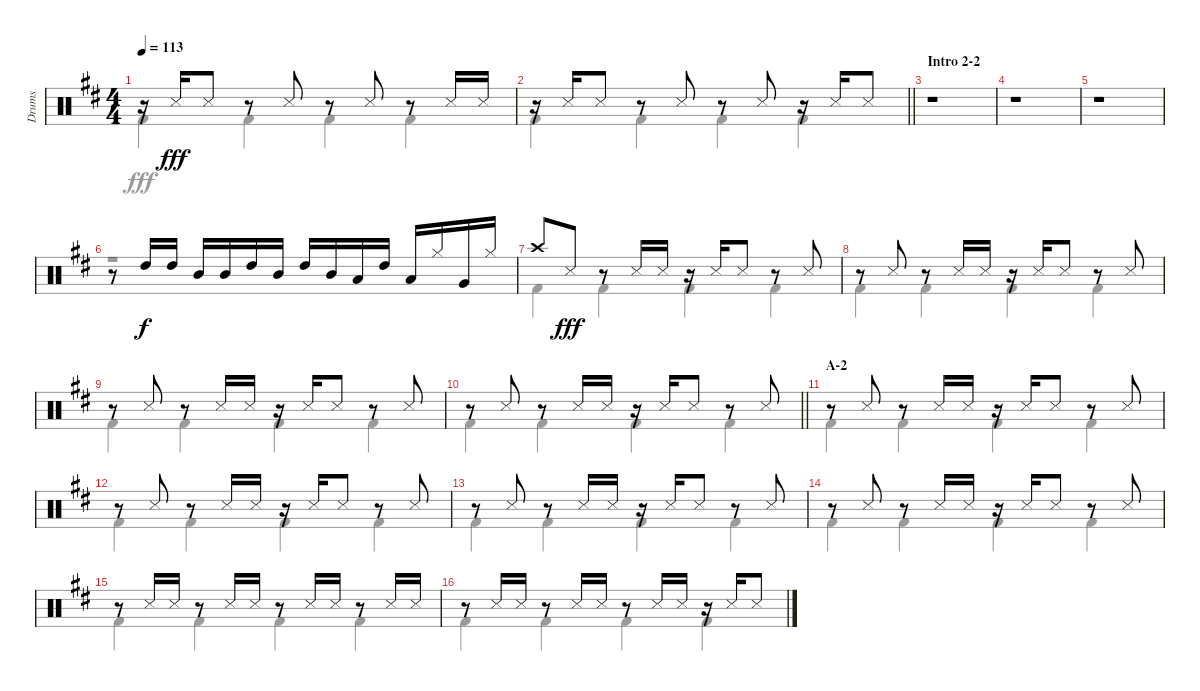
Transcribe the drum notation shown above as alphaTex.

\track ("Drums" "Drums") {instrument percussion}
\staff {score}
\articulation defaults
\voice
\ts (4 4)
\tempo 113
\clef neutral
\ks d
r.16{dy fff} "Snare (side stick) 3".16 "Snare (side stick) 3".8 r.8 "Snare (side stick) 3".8 r.8 "Snare (side stick) 3".8 r.8 "Snare (side stick) 3".16 "Snare (side stick) 3".16 |
\barLineRight lightlight
r.16 "Snare (side stick) 3".16 "Snare (side stick) 3".8 r.8 "Snare (side stick) 3".8 r.8 "Snare (side stick) 3".8 r.16 "Snare (side stick) 3".16 "Snare (side stick) 3".8 |
\section ("" "Intro 2-2")
r.1 |
r.1 |
r.1 |
r.8 "High Tom (hit)".16{dy f} "High Tom (hit)".16 "Mid Tom (hit)".16 "Mid Tom (hit)".16 "High Tom (hit)".16 "Mid Tom (hit)".16 "High Tom (hit)".16 "Mid Tom (hit)".16 "Low Tom (hit)".16 "High Tom (hit)".16 "Low Tom (hit)".16 "Hi-Hat (closed)".16 "Very Low Tom (hit)".16 "Hi-Hat (closed)".16 |
"Crash high (hit)".8 "Snare (side stick) 3".8{dy fff} r.8 "Snare (side stick) 3".16 "Snare (side stick) 3".16 r.16 "Snare (side stick) 3".16 "Snare (side stick) 3".8 r.8 "Snare (side stick) 3".8 |
r.8 "Snare (side stick) 3".8 r.8 "Snare (side stick) 3".16 "Snare (side stick) 3".16 r.16 "Snare (side stick) 3".16 "Snare (side stick) 3".8 r.8 "Snare (side stick) 3".8 |
r.8 "Snare (side stick) 3".8 r.8 "Snare (side stick) 3".16 "Snare (side stick) 3".16 r.16 "Snare (side stick) 3".16 "Snare (side stick) 3".8 r.8 "Snare (side stick) 3".8 |
\barLineRight lightlight
r.8 "Snare (side stick) 3".8 r.8 "Snare (side stick) 3".16 "Snare (side stick) 3".16 r.16 "Snare (side stick) 3".16 "Snare (side stick) 3".8 r.8 "Snare (side stick) 3".8 |
\section ("" "A-2")
r.8 "Snare (side stick) 3".8 r.8 "Snare (side stick) 3".16 "Snare (side stick) 3".16 r.16 "Snare (side stick) 3".16 "Snare (side stick) 3".8 r.8 "Snare (side stick) 3".8 |
r.8 "Snare (side stick) 3".8 r.8 "Snare (side stick) 3".16 "Snare (side stick) 3".16 r.16 "Snare (side stick) 3".16 "Snare (side stick) 3".8 r.8 "Snare (side stick) 3".8 |
r.8 "Snare (side stick) 3".8 r.8 "Snare (side stick) 3".16 "Snare (side stick) 3".16 r.16 "Snare (side stick) 3".16 "Snare (side stick) 3".8 r.8 "Snare (side stick) 3".8 |
r.8 "Snare (side stick) 3".8 r.8 "Snare (side stick) 3".16 "Snare (side stick) 3".16 r.16 "Snare (side stick) 3".16 "Snare (side stick) 3".8 r.8 "Snare (side stick) 3".8 |
r.8 "Snare (side stick) 3".16 "Snare (side stick) 3".16 r.8 "Snare (side stick) 3".16 "Snare (side stick) 3".16 r.8 "Snare (side stick) 3".16 "Snare (side stick) 3".16 r.8 "Snare (side stick) 3".16 "Snare (side stick) 3".16 |
r.8 "Snare (side stick) 3".16 "Snare (side stick) 3".16 r.8 "Snare (side stick) 3".16 "Snare (side stick) 3".16 r.8 "Snare (side stick) 3".16 "Snare (side stick) 3".16 r.16 "Snare (side stick) 3".16 "Snare (side stick) 3".8
\voice
\clef neutral
\ottava regular
\simile none
\ks d "Kick (hit) 2".4{dy fff} "Kick (hit) 2".4 "Kick (hit) 2".4 "Kick (hit) 2".4
|
\barLineRight lightlight "Kick (hit) 2".4 "Kick (hit) 2".4 "Kick (hit) 2".4 "Kick (hit) 2".4
|
r.1 |
r.1 |
r.1 |
r.1 |
"Kick (hit) 2".4 "Kick (hit) 2".4 "Kick (hit) 2".4 "Kick (hit) 2".4 |
"Kick (hit) 2".4 "Kick (hit) 2".4 "Kick (hit) 2".4 "Kick (hit) 2".4 |
"Kick (hit) 2".4 "Kick (hit) 2".4 "Kick (hit) 2".4 "Kick (hit) 2".4 |
\barLineRight lightlight "Kick (hit) 2".4 "Kick (hit) 2".4 "Kick (hit) 2".4 "Kick (hit) 2".4
|
"Kick (hit) 2".4 "Kick (hit) 2".4 "Kick (hit) 2".4 "Kick (hit) 2".4 |
"Kick (hit) 2".4 "Kick (hit) 2".4 "Kick (hit) 2".4 "Kick (hit) 2".4 |
"Kick (hit) 2".4 "Kick (hit) 2".4 "Kick (hit) 2".4 "Kick (hit) 2".4 |
"Kick (hit) 2".4 "Kick (hit) 2".4 "Kick (hit) 2".4 "Kick (hit) 2".4 |
"Kick (hit) 2".4 "Kick (hit) 2".4 "Kick (hit) 2".4 "Kick (hit) 2".4 |
"Kick (hit) 2".4 "Kick (hit) 2".4 "Kick (hit) 2".4 "Kick (hit) 2".4
